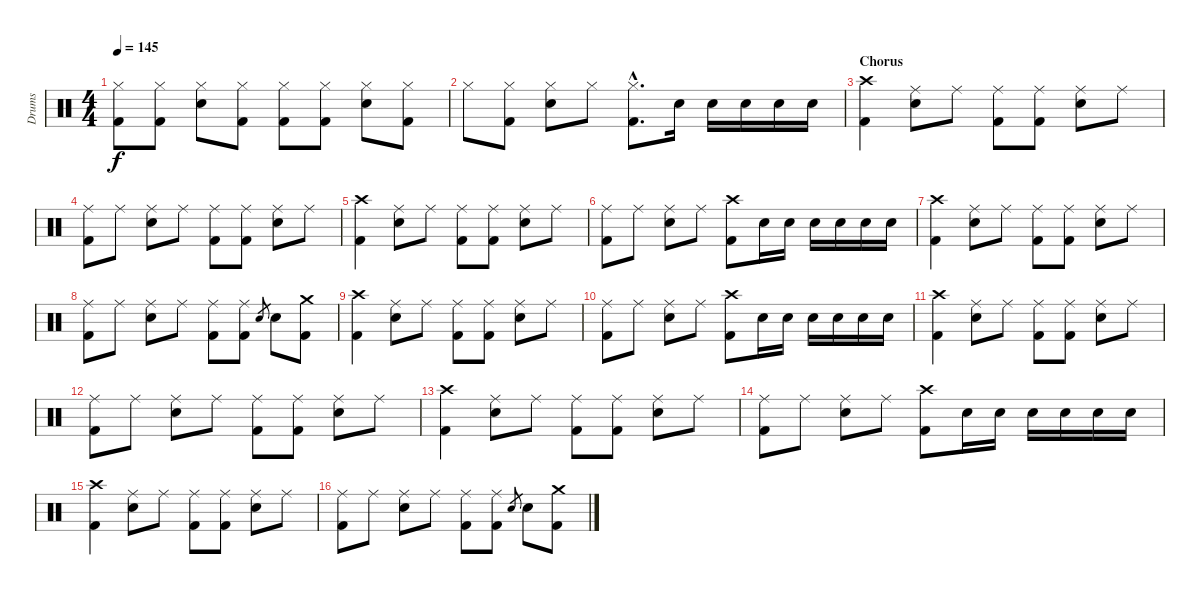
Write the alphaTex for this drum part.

\track ("Drums" "Drums") {instrument percussion}
\staff {score}
\articulation defaults
\ts (4 4)
\tempo 145
\clef neutral
\ks c
("Hi-Hat (closed)" "Kick (hit) 2").8{dy f} ("Hi-Hat (closed)" "Kick (hit) 2").8 ("Hi-Hat (closed)" "Electric Snare (hit)").8 ("Hi-Hat (closed)" "Kick (hit) 2").8 ("Hi-Hat (closed)" "Kick (hit) 2").8 ("Hi-Hat (closed)" "Kick (hit) 2").8 ("Hi-Hat (closed)" "Electric Snare (hit)").8 ("Hi-Hat (closed)" "Kick (hit) 2").8 |
"Hi-Hat (closed)".8 ("Hi-Hat (closed)" "Kick (hit) 2").8 ("Hi-Hat (closed)" "Electric Snare (hit)").8 "Hi-Hat (closed)".8 ("Hi-Hat (closed)"{hac} "Kick (hit) 2"{hac}).8{d} "Electric Snare (hit)".16 "Electric Snare (hit)".16 "Electric Snare (hit)".16 "Electric Snare (hit)".16 "Electric Snare (hit)".16 |
\section ("" "Chorus")
("Crash high (hit)" "Kick (hit) 2").4 ("Ride (middle)" "Electric Snare (hit)").8 "Ride (middle)".8 ("Ride (middle)" "Kick (hit) 2").8 ("Ride (middle)" "Kick (hit) 2").8 ("Ride (middle)" "Electric Snare (hit)").8 "Ride (middle)".8 |
("Ride (middle)" "Kick (hit) 2").8 "Ride (middle)".8 ("Ride (middle)" "Electric Snare (hit)").8 "Ride (middle)".8 ("Ride (middle)" "Kick (hit) 2").8 ("Ride (middle)" "Kick (hit) 2").8 ("Ride (middle)" "Electric Snare (hit)").8 "Ride (middle)".8 |
("Crash high (hit)" "Kick (hit) 2").4 ("Ride (middle)" "Electric Snare (hit)").8 "Ride (middle)".8 ("Ride (middle)" "Kick (hit) 2").8 ("Ride (middle)" "Kick (hit) 2").8 ("Ride (middle)" "Electric Snare (hit)").8 "Ride (middle)".8 |
("Ride (middle)" "Kick (hit) 2").8 "Ride (middle)".8 ("Ride (middle)" "Electric Snare (hit)").8 "Ride (middle)".8 ("Crash high (hit)" "Kick (hit) 2").8 "Electric Snare (hit)".16 "Electric Snare (hit)".16 "Electric Snare (hit)".16 "Electric Snare (hit)".16 "Electric Snare (hit)".16 "Electric Snare (hit)".16 |
("Crash high (hit)" "Kick (hit) 2").4 ("Ride (middle)" "Electric Snare (hit)").8 "Ride (middle)".8 ("Ride (middle)" "Kick (hit) 2").8 ("Ride (middle)" "Kick (hit) 2").8 ("Ride (middle)" "Electric Snare (hit)").8 "Ride (middle)".8 |
("Ride (middle)" "Kick (hit) 2").8 "Ride (middle)".8 ("Ride (middle)" "Electric Snare (hit)").8 "Ride (middle)".8 ("Ride (middle)" "Kick (hit) 2").8 ("Ride (middle)" "Kick (hit) 2").8 "Electric Snare (hit)".8{gr} "Electric Snare (hit)".8 ("Crash medium (hit)" "Kick (hit) 2").8 |
("Crash high (hit)" "Kick (hit) 2").4 ("Ride (middle)" "Electric Snare (hit)").8 "Ride (middle)".8 ("Ride (middle)" "Kick (hit) 2").8 ("Ride (middle)" "Kick (hit) 2").8 ("Ride (middle)" "Electric Snare (hit)").8 "Ride (middle)".8 |
("Ride (middle)" "Kick (hit) 2").8 "Ride (middle)".8 ("Ride (middle)" "Electric Snare (hit)").8 "Ride (middle)".8 ("Crash high (hit)" "Kick (hit) 2").8 "Electric Snare (hit)".16 "Electric Snare (hit)".16 "Electric Snare (hit)".16 "Electric Snare (hit)".16 "Electric Snare (hit)".16 "Electric Snare (hit)".16 |
("Crash high (hit)" "Kick (hit) 2").4 ("Ride (middle)" "Electric Snare (hit)").8 "Ride (middle)".8 ("Ride (middle)" "Kick (hit) 2").8 ("Ride (middle)" "Kick (hit) 2").8 ("Ride (middle)" "Electric Snare (hit)").8 "Ride (middle)".8 |
("Ride (middle)" "Kick (hit) 2").8 "Ride (middle)".8 ("Ride (middle)" "Electric Snare (hit)").8 "Ride (middle)".8 ("Ride (middle)" "Kick (hit) 2").8 ("Ride (middle)" "Kick (hit) 2").8 ("Ride (middle)" "Electric Snare (hit)").8 "Ride (middle)".8 |
("Crash high (hit)" "Kick (hit) 2").4 ("Ride (middle)" "Electric Snare (hit)").8 "Ride (middle)".8 ("Ride (middle)" "Kick (hit) 2").8 ("Ride (middle)" "Kick (hit) 2").8 ("Ride (middle)" "Electric Snare (hit)").8 "Ride (middle)".8 |
("Ride (middle)" "Kick (hit) 2").8 "Ride (middle)".8 ("Ride (middle)" "Electric Snare (hit)").8 "Ride (middle)".8 ("Crash high (hit)" "Kick (hit) 2").8 "Electric Snare (hit)".16 "Electric Snare (hit)".16 "Electric Snare (hit)".16 "Electric Snare (hit)".16 "Electric Snare (hit)".16 "Electric Snare (hit)".16 |
("Crash high (hit)" "Kick (hit) 2").4 ("Ride (middle)" "Electric Snare (hit)").8 "Ride (middle)".8 ("Ride (middle)" "Kick (hit) 2").8 ("Ride (middle)" "Kick (hit) 2").8 ("Ride (middle)" "Electric Snare (hit)").8 "Ride (middle)".8 |
("Ride (middle)" "Kick (hit) 2").8 "Ride (middle)".8 ("Ride (middle)" "Electric Snare (hit)").8 "Ride (middle)".8 ("Ride (middle)" "Kick (hit) 2").8 ("Ride (middle)" "Kick (hit) 2").8 "Electric Snare (hit)".8{gr} "Electric Snare (hit)".8 ("Crash medium (hit)" "Kick (hit) 2").8
